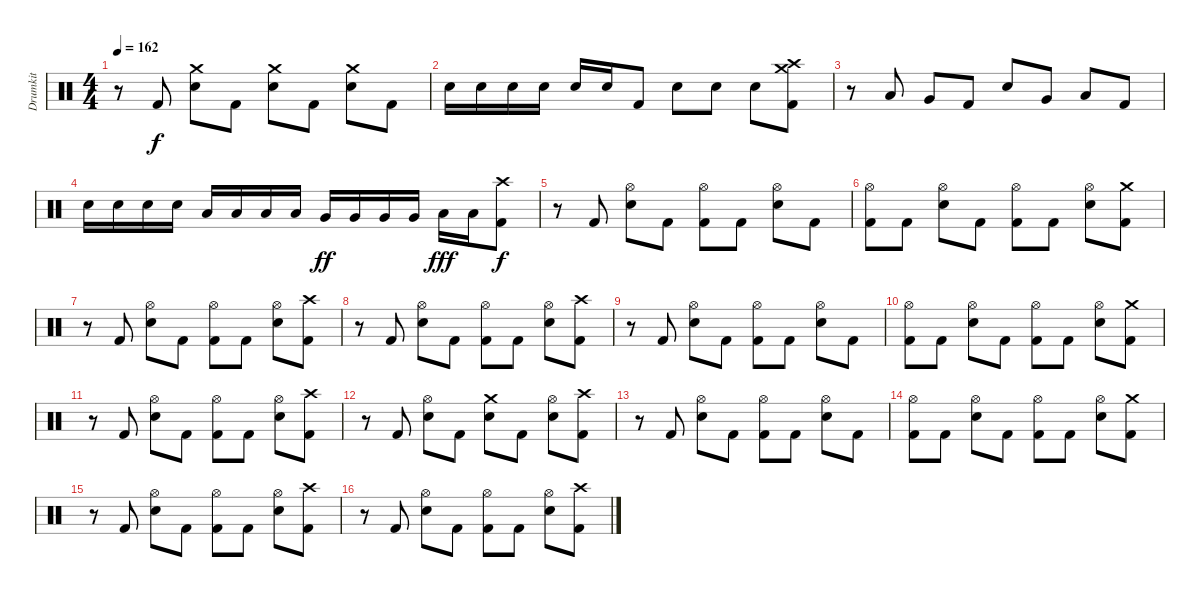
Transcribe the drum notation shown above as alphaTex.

\track ("Drumkit" "Drumkit") {instrument percussion}
\staff {score}
\articulation defaults
\ts (4 4)
\tempo 162
\clef neutral
\ks c
r.8{dy f} "Kick (hit) 2".8 ("Crash medium (hit)" "Electric Snare (hit)").8 "Kick (hit) 2".8 ("Crash medium (hit)" "Electric Snare (hit)").8 "Kick (hit) 2".8 ("Crash medium (hit)" "Electric Snare (hit)").8 "Kick (hit) 2".8 |
"Electric Snare (hit)".16 "Electric Snare (hit)".16 "Electric Snare (hit)".16 "Electric Snare (hit)".16 "Electric Snare (hit)".16 "Electric Snare (hit)".16 "Kick (hit) 2".8 "Electric Snare (hit)".8 "Electric Snare (hit)".8 "Electric Snare (hit)".8 ("Crash high (hit)" "Crash medium (hit)" "Kick (hit) 2").8 |
r.8 "Low Tom (hit)".8 "Very Low Tom (hit)".8 "Kick (hit) 2".8 "Electric Snare (hit)".8 "Very Low Tom (hit)".8 "Low Floor Tom (hit)".8 "Kick (hit) 2".8 |
"Electric Snare (hit)".16 "Electric Snare (hit)".16 "Electric Snare (hit)".16 "Electric Snare (hit)".16 "Low Tom (hit)".16 "Low Tom (hit)".16 "Low Tom (hit)".16 "Low Tom (hit)".16 "Very Low Tom (hit)".16{dy ff} "Very Low Tom (hit)".16 "Very Low Tom (hit)".16 "Very Low Tom (hit)".16 "Low Floor Tom (hit)".16{dy fff} "Low Floor Tom (hit)".16 ("Crash high (hit)" "Kick (hit) 2").8{dy f} |
r.8 "Kick (hit) 2".8 ("Hi-Hat (open)" "Electric Snare (hit)").8 "Kick (hit) 2".8 ("Hi-Hat (open)" "Kick (hit) 2").8 "Kick (hit) 2".8 ("Hi-Hat (open)" "Electric Snare (hit)").8 "Kick (hit) 2".8 |
("Hi-Hat (open)" "Kick (hit) 2").8 "Kick (hit) 2".8 ("Hi-Hat (open)" "Electric Snare (hit)").8 "Kick (hit) 2".8 ("Hi-Hat (open)" "Kick (hit) 2").8 "Kick (hit) 2".8 ("Hi-Hat (open)" "Electric Snare (hit)").8 ("Crash medium (hit)" "Kick (hit) 2").8 |
r.8 "Kick (hit) 2".8 ("Hi-Hat (open)" "Electric Snare (hit)").8 "Kick (hit) 2".8 ("Hi-Hat (open)" "Kick (hit) 2").8 "Kick (hit) 2".8 ("Hi-Hat (open)" "Electric Snare (hit)").8 ("Crash high (hit)" "Kick (hit) 2").8 |
r.8 "Kick (hit) 2".8 ("Hi-Hat (open)" "Electric Snare (hit)").8 "Kick (hit) 2".8 ("Hi-Hat (open)" "Kick (hit) 2").8 "Kick (hit) 2".8 ("Hi-Hat (open)" "Electric Snare (hit)").8 ("Crash high (hit)" "Kick (hit) 2").8 |
r.8 "Kick (hit) 2".8 ("Hi-Hat (open)" "Electric Snare (hit)").8 "Kick (hit) 2".8 ("Hi-Hat (open)" "Kick (hit) 2").8 "Kick (hit) 2".8 ("Hi-Hat (open)" "Electric Snare (hit)").8 "Kick (hit) 2".8 |
("Hi-Hat (open)" "Kick (hit) 2").8 "Kick (hit) 2".8 ("Hi-Hat (open)" "Electric Snare (hit)").8 "Kick (hit) 2".8 ("Hi-Hat (open)" "Kick (hit) 2").8 "Kick (hit) 2".8 ("Hi-Hat (open)" "Electric Snare (hit)").8 ("Crash medium (hit)" "Kick (hit) 2").8 |
r.8 "Kick (hit) 2".8 ("Hi-Hat (open)" "Electric Snare (hit)").8 "Kick (hit) 2".8 ("Hi-Hat (open)" "Kick (hit) 2").8 "Kick (hit) 2".8 ("Hi-Hat (open)" "Electric Snare (hit)").8 ("Crash high (hit)" "Kick (hit) 2").8 |
r.8 "Kick (hit) 2".8 ("Hi-Hat (open)" "Electric Snare (hit)").8 "Kick (hit) 2".8 ("Crash medium (hit)" "Electric Snare (hit)").8 "Kick (hit) 2".8 ("Hi-Hat (open)" "Electric Snare (hit)").8 ("Crash high (hit)" "Kick (hit) 2").8 |
r.8 "Kick (hit) 2".8 ("Hi-Hat (open)" "Electric Snare (hit)").8 "Kick (hit) 2".8 ("Hi-Hat (open)" "Kick (hit) 2").8 "Kick (hit) 2".8 ("Hi-Hat (open)" "Electric Snare (hit)").8 "Kick (hit) 2".8 |
("Hi-Hat (open)" "Kick (hit) 2").8 "Kick (hit) 2".8 ("Hi-Hat (open)" "Electric Snare (hit)").8 "Kick (hit) 2".8 ("Hi-Hat (open)" "Kick (hit) 2").8 "Kick (hit) 2".8 ("Hi-Hat (open)" "Electric Snare (hit)").8 ("Crash medium (hit)" "Kick (hit) 2").8 |
r.8 "Kick (hit) 2".8 ("Hi-Hat (open)" "Electric Snare (hit)").8 "Kick (hit) 2".8 ("Hi-Hat (open)" "Kick (hit) 2").8 "Kick (hit) 2".8 ("Hi-Hat (open)" "Electric Snare (hit)").8 ("Crash high (hit)" "Kick (hit) 2").8 |
r.8 "Kick (hit) 2".8 ("Hi-Hat (open)" "Electric Snare (hit)").8 "Kick (hit) 2".8 ("Hi-Hat (open)" "Kick (hit) 2").8 "Kick (hit) 2".8 ("Hi-Hat (open)" "Electric Snare (hit)").8 ("Crash high (hit)" "Kick (hit) 2").8
